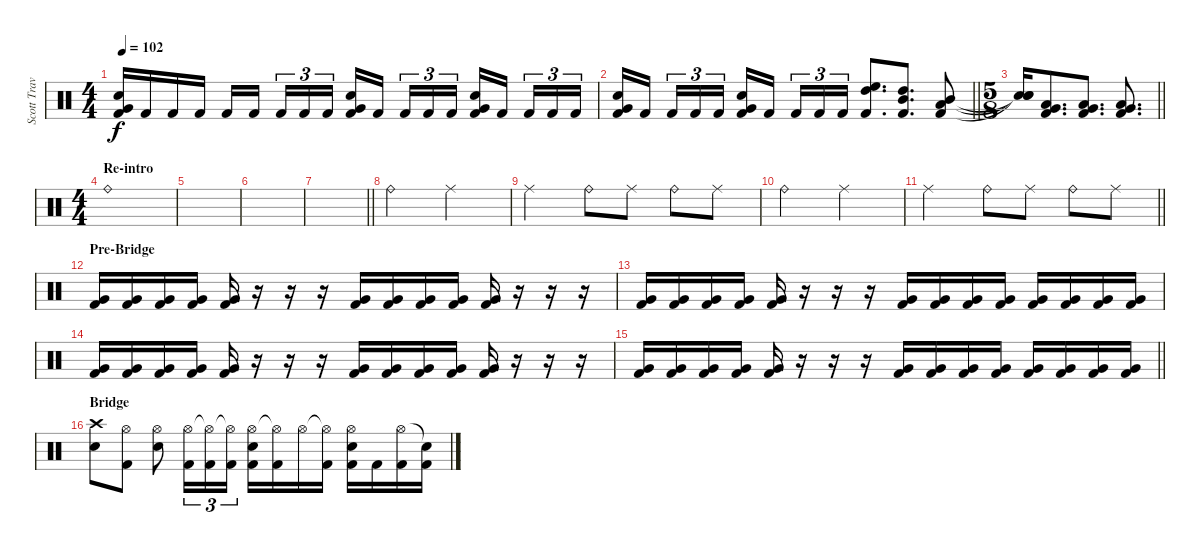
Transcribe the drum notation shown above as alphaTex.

\track ("Scott Travis" "Scott Trav") {instrument percussion}
\staff {score}
\articulation defaults
\ts (4 4)
\tempo 102
\clef neutral
\ks c
("Very Low Tom (hit)" "Snare (hit) 2" "Kick (hit) 2").16{dy f} "Kick (hit) 2".16 "Kick (hit) 2".16 "Kick (hit) 2".16 "Kick (hit) 2".16 "Kick (hit) 2".16{beam splitsecondary} "Kick (hit) 2".16{tu (3 2)} "Kick (hit) 2".16{tu (3 2)} "Kick (hit) 2".16{tu (3 2)} ("Very Low Tom (hit)" "Snare (hit) 2" "Kick (hit) 2").16 "Kick (hit) 2".16{beam splitsecondary} "Kick (hit) 2".16{tu (3 2)} "Kick (hit) 2".16{tu (3 2)} "Kick (hit) 2".16{tu (3 2)} ("Very Low Tom (hit)" "Snare (hit) 2" "Kick (hit) 2").16 "Kick (hit) 2".16{beam splitsecondary} "Kick (hit) 2".16{tu (3 2)} "Kick (hit) 2".16{tu (3 2)} "Kick (hit) 2".16{tu (3 2)} |
\barLineRight lightlight
("Very Low Tom (hit)" "Snare (hit) 2" "Kick (hit) 2").16 "Kick (hit) 2".16{beam splitsecondary} "Kick (hit) 2".16{tu (3 2)} "Kick (hit) 2".16{tu (3 2)} "Kick (hit) 2".16{tu (3 2)} ("Very Low Tom (hit)" "Snare (hit) 2" "Kick (hit) 2").16 "Kick (hit) 2".16{beam splitsecondary} "Kick (hit) 2".16{tu (3 2)} "Kick (hit) 2".16{tu (3 2)} "Kick (hit) 2".16{tu (3 2)} ("High Floor Tom (hit)" "High Tom (hit)" "Kick (hit) 2").8{d} ("High Tom (hit)" "Mid Tom (hit)" "Kick (hit) 2").8{d} ("Mid Tom (hit)" "Low Tom (hit)" "Kick (hit) 2").8 |
\ts (5 8)
\barLineRight lightlight
("Snare (hit)"{t} "Snare (hit)"{t} "Snare (hit)"{t}).16 ("Low Tom (hit)" "Very Low Tom (hit)" "Kick (hit) 2").8{d} ("Very Low Tom (hit)" "Low Floor Tom (hit)" "Kick (hit) 2").8{d} ("Very Low Tom (hit)" "Low Floor Tom (hit)" "Kick (hit) 2").8{d} |
\ts (4 4)
\section ("" "Re-intro")
"Ride (bell)".1 |
|
|
\barLineRight lightlight
|
"Ride (bell)".2 "Ride (middle)".2 |
"Ride (middle)".2 "Ride (bell)".8 "Ride (middle)".8 "Ride (bell)".8 "Ride (middle)".8 |
"Ride (bell)".2 "Ride (middle)".2 |
\barLineRight lightlight "Ride (middle)".2 "Ride (bell)".8 "Ride (middle)".8 "Ride (bell)".8 "Ride (middle)".8
|
\section ("" "Pre-Bridge")
("Very Low Tom (hit)" "Kick (hit) 2").16 ("Very Low Tom (hit)" "Kick (hit) 2").16 ("Very Low Tom (hit)" "Kick (hit) 2").16 ("Very Low Tom (hit)" "Kick (hit) 2").16 ("Very Low Tom (hit)" "Kick (hit) 2").16 r.16 r.16 r.16 ("Very Low Tom (hit)" "Kick (hit) 2").16 ("Very Low Tom (hit)" "Kick (hit) 2").16 ("Very Low Tom (hit)" "Kick (hit) 2").16 ("Very Low Tom (hit)" "Kick (hit) 2").16 ("Very Low Tom (hit)" "Kick (hit) 2").16 r.16 r.16 r.16 |
("Very Low Tom (hit)" "Kick (hit) 2").16 ("Very Low Tom (hit)" "Kick (hit) 2").16 ("Very Low Tom (hit)" "Kick (hit) 2").16 ("Very Low Tom (hit)" "Kick (hit) 2").16 ("Very Low Tom (hit)" "Kick (hit) 2").16 r.16 r.16 r.16 ("Very Low Tom (hit)" "Kick (hit) 2").16 ("Very Low Tom (hit)" "Kick (hit) 2").16 ("Very Low Tom (hit)" "Kick (hit) 2").16 ("Very Low Tom (hit)" "Kick (hit) 2").16 ("Very Low Tom (hit)" "Kick (hit) 2").16 ("Very Low Tom (hit)" "Kick (hit) 2").16 ("Very Low Tom (hit)" "Kick (hit) 2").16 ("Very Low Tom (hit)" "Kick (hit) 2").16 |
("Very Low Tom (hit)" "Kick (hit) 2").16 ("Very Low Tom (hit)" "Kick (hit) 2").16 ("Very Low Tom (hit)" "Kick (hit) 2").16 ("Very Low Tom (hit)" "Kick (hit) 2").16 ("Very Low Tom (hit)" "Kick (hit) 2").16 r.16 r.16 r.16 ("Very Low Tom (hit)" "Kick (hit) 2").16 ("Very Low Tom (hit)" "Kick (hit) 2").16 ("Very Low Tom (hit)" "Kick (hit) 2").16 ("Very Low Tom (hit)" "Kick (hit) 2").16 ("Very Low Tom (hit)" "Kick (hit) 2").16 r.16 r.16 r.16 |
\barLineRight lightlight
("Very Low Tom (hit)" "Kick (hit) 2").16 ("Very Low Tom (hit)" "Kick (hit) 2").16 ("Very Low Tom (hit)" "Kick (hit) 2").16 ("Very Low Tom (hit)" "Kick (hit) 2").16 ("Very Low Tom (hit)" "Kick (hit) 2").16 r.16 r.16 r.16 ("Very Low Tom (hit)" "Kick (hit) 2").16 ("Very Low Tom (hit)" "Kick (hit) 2").16 ("Very Low Tom (hit)" "Kick (hit) 2").16 ("Very Low Tom (hit)" "Kick (hit) 2").16 ("Very Low Tom (hit)" "Kick (hit) 2").16 ("Very Low Tom (hit)" "Kick (hit) 2").16 ("Very Low Tom (hit)" "Kick (hit) 2").16 ("Very Low Tom (hit)" "Kick (hit) 2").16 |
\section ("" "Bridge")
("Crash high (hit)" "Snare (hit) 2").8 ("Hi-Hat (open)" "Kick (hit) 2").8 ("Hi-Hat (open)" "Snare (hit) 2").8 ("Hi-Hat (open)" "Kick (hit) 2").16{tu (3 2)} ("Hi-Hat (open)"{t} "Kick (hit) 2").16{tu (3 2)} ("Hi-Hat (open)"{t} "Kick (hit) 2").16{tu (3 2)} ("Hi-Hat (open)" "Snare (hit) 2" "Kick (hit) 2").16 ("Hi-Hat (open)"{t} "Kick (hit) 2").16 "Hi-Hat (open)".16 ("Hi-Hat (open)"{t} "Kick (hit) 2").16 ("Hi-Hat (open)" "Snare (hit) 2" "Kick (hit) 2").16 "Kick (hit) 2".16 ("Hi-Hat (open)" "Kick (hit) 2").16 ("Snare (hit)"{t} "Kick (hit) 2").16
